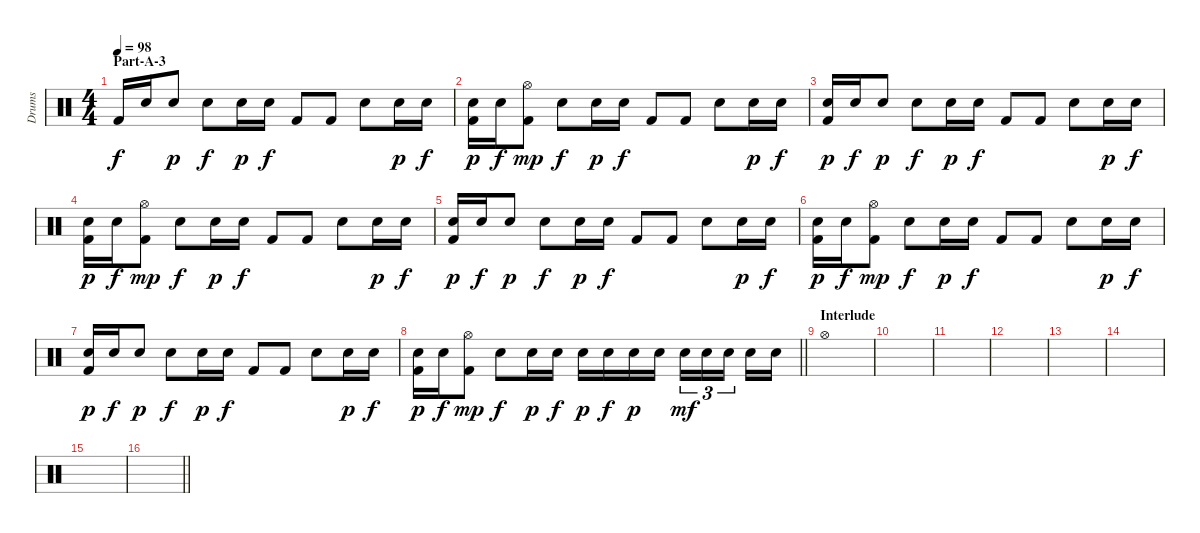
\track ("Drums" "Drums") {instrument percussion}
\staff {score}
\articulation defaults
\ts (4 4)
\section ("" "Part-A-3")
\tempo 98
\clef neutral
\ks c "Kick (hit) 2".16{dy f} "Snare (hit) 2".16 "Electric Snare (hit)".8{dy p} "Snare (hit) 2".8{dy f} "Electric Snare (hit)".16{dy p} "Snare (hit) 2".16{dy f} "Kick (hit) 2".8 "Kick (hit) 2".8 "Snare (hit) 2".8 "Electric Snare (hit)".16{dy p} "Snare (hit) 2".16{dy f}
|
("Electric Snare (hit)" "Kick (hit) 2").16{dy p} "Snare (hit) 2".16{dy f} ("Hi-Hat (open)" "Kick (hit) 2").8{dy mp} "Snare (hit) 2".8{dy f} "Electric Snare (hit)".16{dy p} "Snare (hit) 2".16{dy f} "Kick (hit) 2".8 "Kick (hit) 2".8 "Snare (hit) 2".8 "Electric Snare (hit)".16{dy p} "Snare (hit) 2".16{dy f} |
("Electric Snare (hit)" "Kick (hit) 2").16{dy p} "Snare (hit) 2".16{dy f} "Electric Snare (hit)".8{dy p} "Snare (hit) 2".8{dy f} "Electric Snare (hit)".16{dy p} "Snare (hit) 2".16{dy f} "Kick (hit) 2".8 "Kick (hit) 2".8 "Snare (hit) 2".8 "Electric Snare (hit)".16{dy p} "Snare (hit) 2".16{dy f} |
("Electric Snare (hit)" "Kick (hit) 2").16{dy p} "Snare (hit) 2".16{dy f} ("Hi-Hat (open)" "Kick (hit) 2").8{dy mp} "Snare (hit) 2".8{dy f} "Electric Snare (hit)".16{dy p} "Snare (hit) 2".16{dy f} "Kick (hit) 2".8 "Kick (hit) 2".8 "Snare (hit) 2".8 "Electric Snare (hit)".16{dy p} "Snare (hit) 2".16{dy f} |
("Electric Snare (hit)" "Kick (hit) 2").16{dy p} "Snare (hit) 2".16{dy f} "Electric Snare (hit)".8{dy p} "Snare (hit) 2".8{dy f} "Electric Snare (hit)".16{dy p} "Snare (hit) 2".16{dy f} "Kick (hit) 2".8 "Kick (hit) 2".8 "Snare (hit) 2".8 "Electric Snare (hit)".16{dy p} "Snare (hit) 2".16{dy f} |
("Electric Snare (hit)" "Kick (hit) 2").16{dy p} "Snare (hit) 2".16{dy f} ("Hi-Hat (open)" "Kick (hit) 2").8{dy mp} "Snare (hit) 2".8{dy f} "Electric Snare (hit)".16{dy p} "Snare (hit) 2".16{dy f} "Kick (hit) 2".8 "Kick (hit) 2".8 "Snare (hit) 2".8 "Electric Snare (hit)".16{dy p} "Snare (hit) 2".16{dy f} |
("Electric Snare (hit)" "Kick (hit) 2").16{dy p} "Snare (hit) 2".16{dy f} "Electric Snare (hit)".8{dy p} "Snare (hit) 2".8{dy f} "Electric Snare (hit)".16{dy p} "Snare (hit) 2".16{dy f} "Kick (hit) 2".8 "Kick (hit) 2".8 "Snare (hit) 2".8 "Electric Snare (hit)".16{dy p} "Snare (hit) 2".16{dy f} |
\barLineRight lightlight
("Electric Snare (hit)" "Kick (hit) 2").16{dy p} "Snare (hit) 2".16{dy f} ("Hi-Hat (open)" "Kick (hit) 2").8{dy mp} "Snare (hit) 2".8{dy f} "Electric Snare (hit)".16{dy p} "Snare (hit) 2".16{dy f} "Electric Snare (hit)".16{dy p} "Snare (hit) 2".16{dy f} "Electric Snare (hit)".16{dy p} "Electric Snare (hit)".16 "Snare (hit) 2".16{tu (3 2) dy mf} "Snare (hit) 2".16{tu (3 2)} "Snare (hit) 2".16{tu (3 2)} "Snare (hit) 2".16 "Snare (hit) 2".16 |
\section ("" "Interlude")
"Hi-Hat (open)".1 |
|
|
|
|
|
|
\barLineRight lightlight
